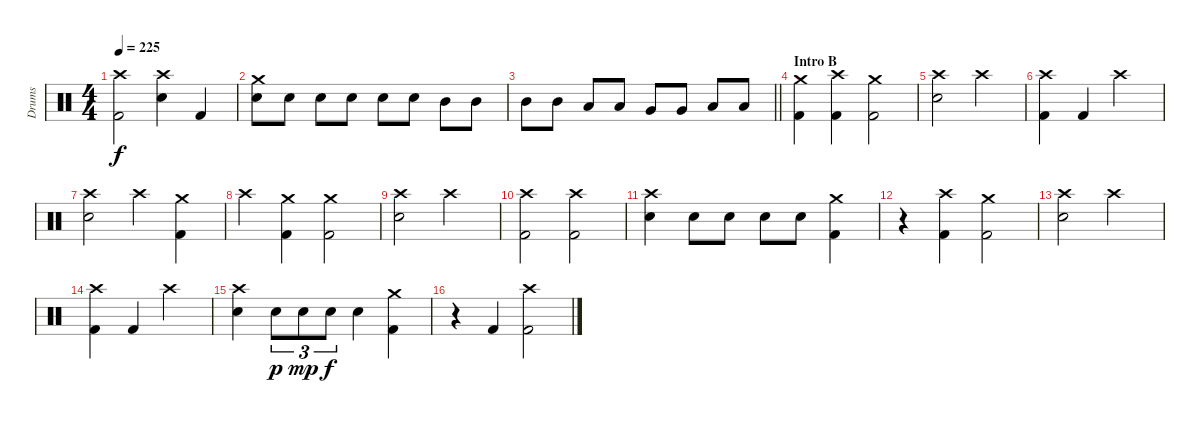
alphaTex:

\track ("Drums" "Drums") {instrument percussion}
\staff {score}
\articulation defaults
\ts (4 4)
\tempo 225
\clef neutral
\ks c
("Crash high (hit)" "Kick (hit) 2").2{dy f} ("Crash high (hit)" "Electric Snare (hit)").4 "Kick (hit) 2".4 |
("Electric Snare (hit)" "Crash medium (hit)").8 "Electric Snare (hit)".8 "Electric Snare (hit)".8 "Electric Snare (hit)".8 "Electric Snare (hit)".8 "Electric Snare (hit)".8 "Mid Tom (hit)".8 "Mid Tom (hit)".8 |
\barLineRight lightlight "Mid Tom (hit)".8 "Mid Tom (hit)".8 "Low Tom (hit)".8 "Low Tom (hit)".8 "Very Low Tom (hit)".8 "Very Low Tom (hit)".8 "Low Floor Tom (hit)".8 "Low Floor Tom (hit)".8
|
\section ("" "Intro B")
("Kick (hit) 2" "Crash medium (hit)").4 ("Kick (hit) 2" "Crash high (hit)").4 ("Kick (hit) 2" "Crash medium (hit)").2 |
("Electric Snare (hit)" "Crash high (hit)").2 "Crash high (hit)".2 |
("Crash high (hit)" "Kick (hit) 2").4 "Kick (hit) 2".4 "Crash high (hit)".2 |
("Electric Snare (hit)" "Crash high (hit)").2 "Crash high (hit)".4 ("Kick (hit) 2" "Crash medium (hit)").4 |
"Crash high (hit)".4 ("Kick (hit) 2" "Crash medium (hit)").4 ("Kick (hit) 2" "Crash medium (hit)").2 |
("Electric Snare (hit)" "Crash high (hit)").2 "Crash high (hit)".2 |
("Crash high (hit)" "Kick (hit) 2").2 ("Kick (hit) 2" "Crash high (hit)").2 |
("Crash high (hit)" "Electric Snare (hit)").4 "Electric Snare (hit)".8 "Electric Snare (hit)".8 "Electric Snare (hit)".8 "Electric Snare (hit)".8 ("Crash medium (hit)" "Kick (hit) 2").4 |
r.4 ("Kick (hit) 2" "Crash high (hit)").4 ("Kick (hit) 2" "Crash medium (hit)").2 |
("Crash high (hit)" "Electric Snare (hit)").2 "Crash high (hit)".2 |
("Crash high (hit)" "Kick (hit) 2").4 "Kick (hit) 2".4 "Crash high (hit)".2 |
("Crash high (hit)" "Electric Snare (hit)").4 "Electric Snare (hit)".8{tu (3 2) dy p} "Electric Snare (hit)".8{tu (3 2) dy mp} "Electric Snare (hit)".8{tu (3 2) dy f} "Electric Snare (hit)".4 ("Kick (hit) 2" "Crash medium (hit)").4 |
r.4 "Kick (hit) 2".4 ("Crash high (hit)" "Kick (hit) 2").2
